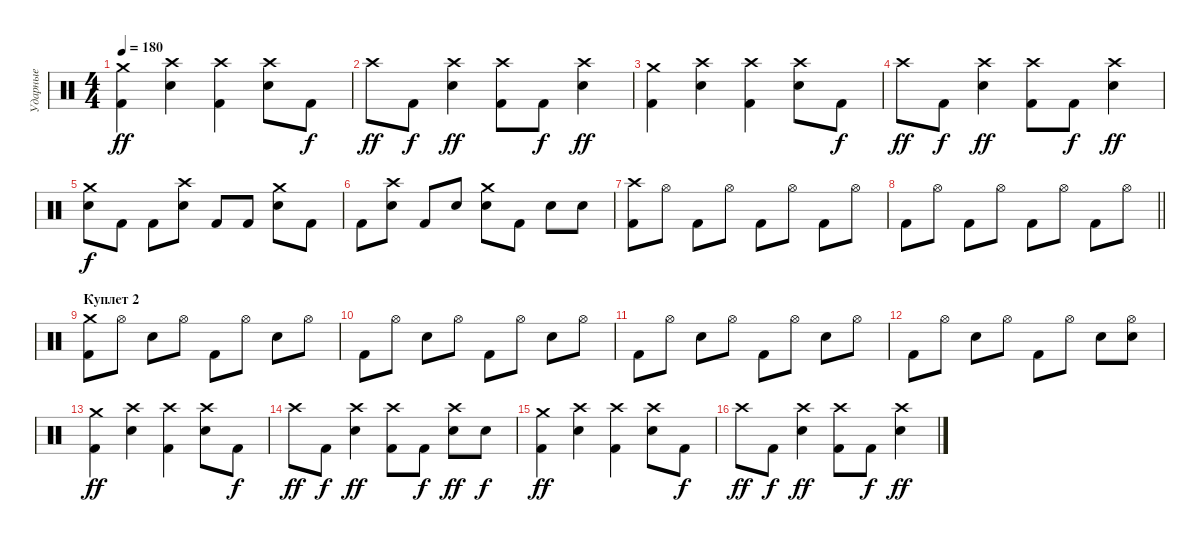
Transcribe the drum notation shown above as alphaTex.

\track ("Ударные" "Ударные") {instrument percussion}
\staff {score}
\articulation defaults
\ts (4 4)
\tempo 180
\clef neutral
\ks c
("Crash medium (hit)" "Kick (hit) 2").4{dy ff} ("Crash high (hit)" "Snare (hit) 2").4 ("Crash high (hit)" "Kick (hit) 2").4 ("Crash high (hit)" "Snare (hit) 2").8 "Kick (hit) 2".8{dy f} |
"Crash high (hit)".8{dy ff} "Kick (hit) 2".8{dy f} ("Crash high (hit)" "Snare (hit) 2").4{dy ff} ("Crash high (hit)" "Kick (hit) 2").8 "Kick (hit) 2".8{dy f} ("Crash high (hit)" "Snare (hit) 2").4{dy ff} |
("Crash medium (hit)" "Kick (hit) 2").4 ("Crash high (hit)" "Snare (hit) 2").4 ("Crash high (hit)" "Kick (hit) 2").4 ("Crash high (hit)" "Snare (hit) 2").8 "Kick (hit) 2".8{dy f} |
"Crash high (hit)".8{dy ff} "Kick (hit) 2".8{dy f} ("Crash high (hit)" "Snare (hit) 2").4{dy ff} ("Crash high (hit)" "Kick (hit) 2").8 "Kick (hit) 2".8{dy f} ("Crash high (hit)" "Snare (hit) 2").4{dy ff} |
("Crash medium (hit)" "Snare (hit) 2").8{dy f} "Kick (hit) 2".8 "Kick (hit) 2".8 ("Crash high (hit)" "Snare (hit) 2").8 "Kick (hit) 2".8 "Kick (hit) 2".8 ("Crash medium (hit)" "Snare (hit) 2").8 "Kick (hit) 2".8 |
"Kick (hit) 2".8 ("Crash high (hit)" "Snare (hit) 2").8 "Kick (hit) 2".8 "Snare (hit)".8 ("Crash medium (hit)" "Snare (hit) 2").8 "Kick (hit) 2".8 "Snare (hit) 2".8 "Snare (hit) 2".8 |
("Crash high (hit)" "Kick (hit) 2").8 "Hi-Hat (open)".8 "Kick (hit) 2".8 "Hi-Hat (open)".8 "Kick (hit) 2".8 "Hi-Hat (open)".8 "Kick (hit) 2".8 "Hi-Hat (open)".8 |
\barLineRight lightlight "Kick (hit) 2".8 "Hi-Hat (open)".8 "Kick (hit) 2".8 "Hi-Hat (open)".8 "Kick (hit) 2".8 "Hi-Hat (open)".8 "Kick (hit) 2".8 "Hi-Hat (open)".8
|
\section ("" "Куплет 2")
("Crash medium (hit)" "Kick (hit) 2").8 "Hi-Hat (open)".8 "Snare (hit) 2".8 "Hi-Hat (open)".8 "Kick (hit) 2".8 "Hi-Hat (open)".8 "Snare (hit) 2".8 "Hi-Hat (open)".8 |
"Kick (hit) 2".8 "Hi-Hat (open)".8 "Snare (hit) 2".8 "Hi-Hat (open)".8 "Kick (hit) 2".8 "Hi-Hat (open)".8 "Snare (hit) 2".8 "Hi-Hat (open)".8 |
"Kick (hit) 2".8 "Hi-Hat (open)".8 "Snare (hit) 2".8 "Hi-Hat (open)".8 "Kick (hit) 2".8 "Hi-Hat (open)".8 "Snare (hit) 2".8 "Hi-Hat (open)".8 |
"Kick (hit) 2".8 "Hi-Hat (open)".8 "Snare (hit) 2".8 "Hi-Hat (open)".8 "Kick (hit) 2".8 "Hi-Hat (open)".8 "Snare (hit) 2".8 ("Hi-Hat (open)" "Snare (hit) 2").8 |
("Crash medium (hit)" "Kick (hit) 2").4{dy ff} ("Crash high (hit)" "Snare (hit) 2").4 ("Crash high (hit)" "Kick (hit) 2").4 ("Crash high (hit)" "Snare (hit) 2").8 "Kick (hit) 2".8{dy f} |
"Crash high (hit)".8{dy ff} "Kick (hit) 2".8{dy f} ("Crash high (hit)" "Snare (hit) 2").4{dy ff} ("Crash high (hit)" "Kick (hit) 2").8 "Kick (hit) 2".8{dy f} ("Crash high (hit)" "Snare (hit) 2").8{dy ff} "Snare (hit) 2".8{dy f} |
("Crash medium (hit)" "Kick (hit) 2").4{dy ff} ("Crash high (hit)" "Snare (hit) 2").4 ("Crash high (hit)" "Kick (hit) 2").4 ("Crash high (hit)" "Snare (hit) 2").8 "Kick (hit) 2".8{dy f} |
"Crash high (hit)".8{dy ff} "Kick (hit) 2".8{dy f} ("Crash high (hit)" "Snare (hit) 2").4{dy ff} ("Crash high (hit)" "Kick (hit) 2").8 "Kick (hit) 2".8{dy f} ("Crash high (hit)" "Snare (hit) 2").4{dy ff}
